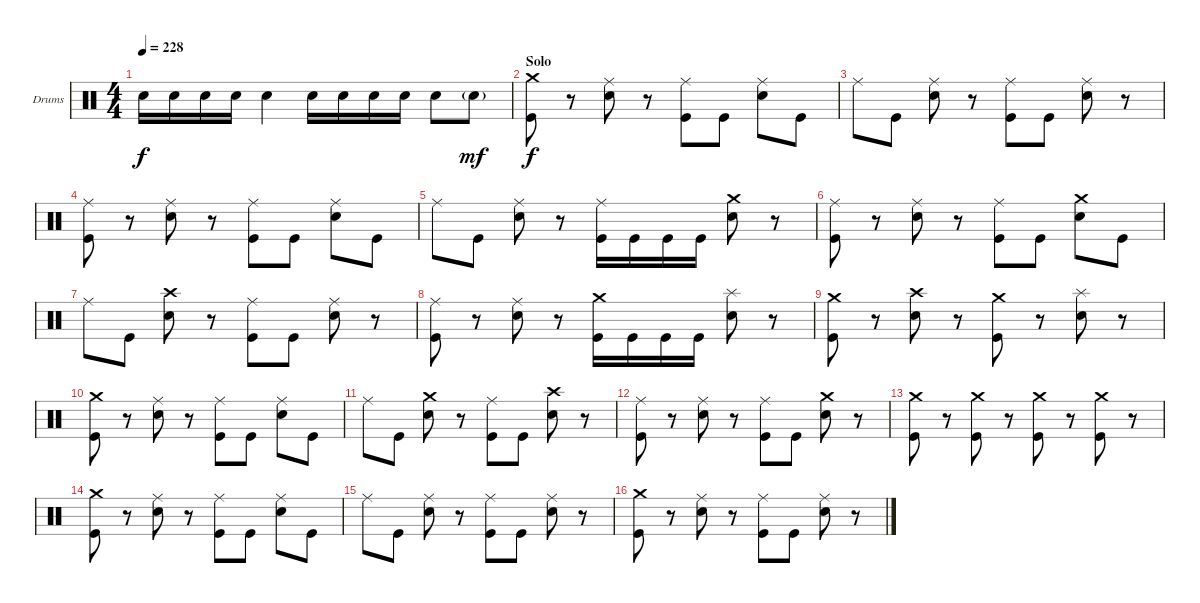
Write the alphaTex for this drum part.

\bracketExtendMode groupsimilarinstruments
\firstSystemTrackNameOrientation horizontal
\otherSystemsTrackNameOrientation horizontal
\track ("Drumkit" "Drums") {instrument percussion}
\staff {score}
\articulation defaults
\ts (4 4)
\tempo 228
\clef neutral
\ks c "Snare (hit) 2".16{dy f} "Snare (hit) 2".16 "Snare (hit) 2".16 "Snare (hit) 2".16 "Snare (hit) 2".4 "Snare (hit) 2".16 "Snare (hit) 2".16 "Snare (hit) 2".16 "Snare (hit) 2".16 "Snare (hit) 2".8 "Snare (hit) 2"{g}.8{dy mf}
|
\section ("" "Solo")
("Crash medium (hit)" "Kick (hit)").8{dy f} r.8 ("Ride (middle)" "Snare (hit) 2").8 r.8 ("Ride (middle)" "Kick (hit)").8 "Kick (hit)".8 ("Ride (middle)" "Snare (hit) 2").8 "Kick (hit)".8 |
"Ride (middle)".8 "Kick (hit)".8 ("Ride (middle)" "Snare (hit) 2").8 r.8 ("Ride (middle)" "Kick (hit)").8 "Kick (hit)".8 ("Ride (middle)" "Snare (hit) 2").8 r.8 |
("Ride (middle)" "Kick (hit)").8 r.8 ("Ride (middle)" "Snare (hit) 2").8 r.8 ("Ride (middle)" "Kick (hit)").8 "Kick (hit)".8 ("Ride (middle)" "Snare (hit) 2").8 "Kick (hit)".8 |
"Ride (middle)".8 "Kick (hit)".8 ("Ride (middle)" "Snare (hit) 2").8 r.8 ("Ride (middle)" "Kick (hit)").16 "Kick (hit)".16 "Kick (hit)".16 "Kick (hit)".16 ("Crash medium (hit)" "Snare (hit) 2").8 r.8 |
("Ride (middle)" "Kick (hit)").8 r.8 ("Ride (middle)" "Snare (hit) 2").8 r.8 ("Ride (middle)" "Kick (hit)").8 "Kick (hit)".8 ("Crash medium (hit)" "Snare (hit) 2").8 "Kick (hit)".8 |
"Ride (middle)".8 "Kick (hit)".8 ("Crash high (hit)" "Snare (hit) 2").8 r.8 ("Ride (middle)" "Kick (hit)").8 "Kick (hit)".8 ("Ride (middle)" "Snare (hit) 2").8 r.8 |
("Ride (middle)" "Kick (hit)").8 r.8 ("Ride (middle)" "Snare (hit) 2").8 r.8 ("Crash medium (hit)" "Kick (hit)").16 "Kick (hit)".16 "Kick (hit)".16 "Kick (hit)".16 ("Splash (hit)" "Snare (hit) 2").8 r.8 |
("Crash medium (hit)" "Kick (hit)").8 r.8 ("Crash high (hit)" "Snare (hit) 2").8 r.8 ("Crash medium (hit)" "Kick (hit)").8 r.8 ("Splash (hit)" "Snare (hit) 2").8 r.8 |
("Crash medium (hit)" "Kick (hit)").8 r.8 ("Ride (middle)" "Snare (hit) 2").8 r.8 ("Ride (middle)" "Kick (hit)").8 "Kick (hit)".8 ("Ride (middle)" "Snare (hit) 2").8 "Kick (hit)".8 |
"Ride (middle)".8 "Kick (hit)".8 ("Crash medium (hit)" "Snare (hit) 2").8 r.8 ("Ride (middle)" "Kick (hit)").8 "Kick (hit)".8 ("Crash high (hit)" "Snare (hit) 2").8 r.8 |
("Ride (middle)" "Kick (hit)").8 r.8 ("Ride (middle)" "Snare (hit) 2").8 r.8 ("Ride (middle)" "Kick (hit)").8 "Kick (hit)".8 ("Crash medium (hit)" "Snare (hit) 2").8 r.8 |
("Crash medium (hit)" "Kick (hit)").8 r.8 ("Crash medium (hit)" "Kick (hit)").8 r.8 ("Crash medium (hit)" "Kick (hit)").8 r.8 ("Crash medium (hit)" "Kick (hit)").8 r.8 |
("Crash medium (hit)" "Kick (hit)").8 r.8 ("Ride (middle)" "Snare (hit) 2").8 r.8 ("Ride (middle)" "Kick (hit)").8 "Kick (hit)".8 ("Ride (middle)" "Snare (hit) 2").8 "Kick (hit)".8 |
"Ride (middle)".8 "Kick (hit)".8 ("Ride (middle)" "Snare (hit) 2").8 r.8 ("Ride (middle)" "Kick (hit)").8 "Kick (hit)".8 ("Ride (middle)" "Snare (hit) 2").8 r.8 |
("Crash medium (hit)" "Kick (hit)").8 r.8 ("Ride (middle)" "Snare (hit) 2").8 r.8 ("Ride (middle)" "Kick (hit)").8 "Kick (hit)".8 ("Ride (middle)" "Snare (hit) 2").8 r.8
